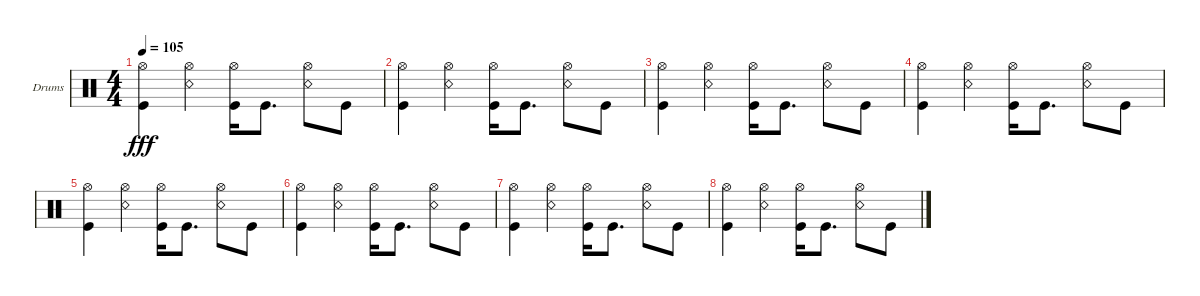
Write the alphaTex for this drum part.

\defaultSystemsLayout 4
\bracketExtendMode groupsimilarinstruments
\firstSystemTrackNameOrientation horizontal
\otherSystemsTrackNameOrientation horizontal
\track ("Drumkit" "Drums") {instrument percussion}
\staff {score}
\articulation defaults
\ts (4 4)
\tempo 105
\clef neutral
\ks c
("Hi-Hat (open)" "Kick (hit)").4{dy fff} ("Hi-Hat (open)" "Snare (rim shot)").4 ("Kick (hit)" "Hi-Hat (open)").16 "Kick (hit)".8{d} ("Snare (rim shot)" "Hi-Hat (open)").8 "Kick (hit)".8 |
("Hi-Hat (open)" "Kick (hit)").4 ("Hi-Hat (open)" "Snare (rim shot)").4 ("Kick (hit)" "Hi-Hat (open)").16 "Kick (hit)".8{d} ("Snare (rim shot)" "Hi-Hat (open)").8 "Kick (hit)".8 |
("Hi-Hat (open)" "Kick (hit)").4 ("Hi-Hat (open)" "Snare (rim shot)").4 ("Kick (hit)" "Hi-Hat (open)").16 "Kick (hit)".8{d} ("Snare (rim shot)" "Hi-Hat (open)").8 "Kick (hit)".8 |
("Hi-Hat (open)" "Kick (hit)").4 ("Hi-Hat (open)" "Snare (rim shot)").4 ("Kick (hit)" "Hi-Hat (open)").16 "Kick (hit)".8{d} ("Snare (rim shot)" "Hi-Hat (open)").8 "Kick (hit)".8 |
("Hi-Hat (open)" "Kick (hit)").4 ("Hi-Hat (open)" "Snare (rim shot)").4 ("Kick (hit)" "Hi-Hat (open)").16 "Kick (hit)".8{d} ("Snare (rim shot)" "Hi-Hat (open)").8 "Kick (hit)".8 |
("Hi-Hat (open)" "Kick (hit)").4 ("Hi-Hat (open)" "Snare (rim shot)").4 ("Kick (hit)" "Hi-Hat (open)").16 "Kick (hit)".8{d} ("Snare (rim shot)" "Hi-Hat (open)").8 "Kick (hit)".8 |
("Hi-Hat (open)" "Kick (hit)").4 ("Hi-Hat (open)" "Snare (rim shot)").4 ("Kick (hit)" "Hi-Hat (open)").16 "Kick (hit)".8{d} ("Snare (rim shot)" "Hi-Hat (open)").8 "Kick (hit)".8 |
("Hi-Hat (open)" "Kick (hit)").4 ("Hi-Hat (open)" "Snare (rim shot)").4 ("Kick (hit)" "Hi-Hat (open)").16 "Kick (hit)".8{d} ("Snare (rim shot)" "Hi-Hat (open)").8 "Kick (hit)".8
